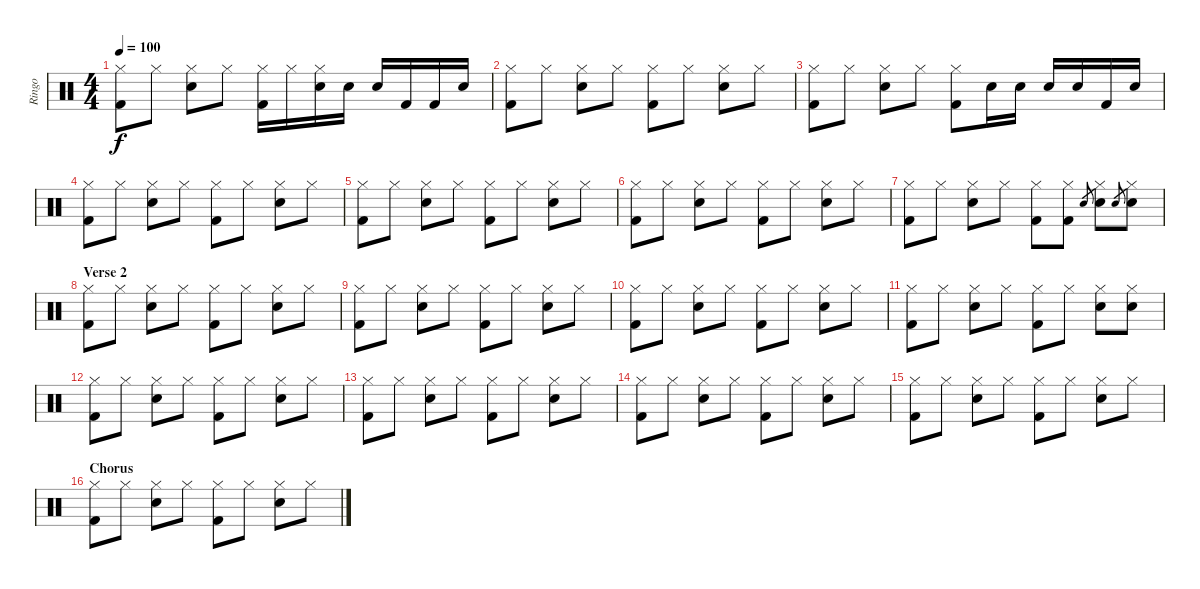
\track ("Ringo" "Ringo") {instrument percussion}
\staff {score}
\articulation defaults
\ts (4 4)
\tempo 100
\clef neutral
\ks c
("Hi-Hat (closed)" "Kick (hit) 2").8{dy f} "Hi-Hat (closed)".8 ("Hi-Hat (closed)" "Electric Snare (hit)").8 "Hi-Hat (closed)".8 ("Hi-Hat (closed)" "Kick (hit) 2").16 "Hi-Hat (closed)".16 ("Hi-Hat (closed)" "Electric Snare (hit)").16 "Electric Snare (hit)".16 "Electric Snare (hit)".16 "Kick (hit) 2".16 "Kick (hit) 2".16 "Electric Snare (hit)".16 |
("Hi-Hat (closed)" "Kick (hit) 2").8 "Hi-Hat (closed)".8 ("Hi-Hat (closed)" "Electric Snare (hit)").8 "Hi-Hat (closed)".8 ("Hi-Hat (closed)" "Kick (hit) 2").8 "Hi-Hat (closed)".8 ("Hi-Hat (closed)" "Electric Snare (hit)").8 "Hi-Hat (closed)".8 |
("Hi-Hat (closed)" "Kick (hit) 2").8 "Hi-Hat (closed)".8 ("Hi-Hat (closed)" "Electric Snare (hit)").8 "Hi-Hat (closed)".8 ("Hi-Hat (closed)" "Kick (hit) 2").8 "Electric Snare (hit)".16 "Electric Snare (hit)".16 "Electric Snare (hit)".16 "Electric Snare (hit)".16 "Kick (hit) 2".16 "Electric Snare (hit)".16 |
("Hi-Hat (closed)" "Kick (hit) 2").8 "Hi-Hat (closed)".8 ("Hi-Hat (closed)" "Electric Snare (hit)").8 "Hi-Hat (closed)".8 ("Hi-Hat (closed)" "Kick (hit) 2").8 "Hi-Hat (closed)".8 ("Hi-Hat (closed)" "Electric Snare (hit)").8 "Hi-Hat (closed)".8 |
("Hi-Hat (closed)" "Kick (hit) 2").8 "Hi-Hat (closed)".8 ("Hi-Hat (closed)" "Electric Snare (hit)").8 "Hi-Hat (closed)".8 ("Hi-Hat (closed)" "Kick (hit) 2").8 "Hi-Hat (closed)".8 ("Hi-Hat (closed)" "Electric Snare (hit)").8 "Hi-Hat (closed)".8 |
("Hi-Hat (closed)" "Kick (hit) 2").8 "Hi-Hat (closed)".8 ("Hi-Hat (closed)" "Electric Snare (hit)").8 "Hi-Hat (closed)".8 ("Hi-Hat (closed)" "Kick (hit) 2").8 "Hi-Hat (closed)".8 ("Hi-Hat (closed)" "Electric Snare (hit)").8 "Hi-Hat (closed)".8 |
("Hi-Hat (closed)" "Kick (hit) 2").8 "Hi-Hat (closed)".8 ("Hi-Hat (closed)" "Electric Snare (hit)").8 "Hi-Hat (closed)".8 ("Hi-Hat (closed)" "Kick (hit) 2").8 ("Hi-Hat (closed)" "Kick (hit) 2").8 "Electric Snare (hit)".8{gr} ("Hi-Hat (closed)" "Electric Snare (hit)").8 "Electric Snare (hit)".8{gr} ("Hi-Hat (closed)" "Electric Snare (hit)").8 |
\section ("" "Verse 2")
("Hi-Hat (closed)" "Kick (hit) 2").8 "Hi-Hat (closed)".8 ("Hi-Hat (closed)" "Electric Snare (hit)").8 "Hi-Hat (closed)".8 ("Hi-Hat (closed)" "Kick (hit) 2").8 "Hi-Hat (closed)".8 ("Hi-Hat (closed)" "Electric Snare (hit)").8 "Hi-Hat (closed)".8 |
("Hi-Hat (closed)" "Kick (hit) 2").8 "Hi-Hat (closed)".8 ("Hi-Hat (closed)" "Electric Snare (hit)").8 "Hi-Hat (closed)".8 ("Hi-Hat (closed)" "Kick (hit) 2").8 "Hi-Hat (closed)".8 ("Hi-Hat (closed)" "Electric Snare (hit)").8 "Hi-Hat (closed)".8 |
("Hi-Hat (closed)" "Kick (hit) 2").8 "Hi-Hat (closed)".8 ("Hi-Hat (closed)" "Electric Snare (hit)").8 "Hi-Hat (closed)".8 ("Hi-Hat (closed)" "Kick (hit) 2").8 "Hi-Hat (closed)".8 ("Hi-Hat (closed)" "Electric Snare (hit)").8 "Hi-Hat (closed)".8 |
("Hi-Hat (closed)" "Kick (hit) 2").8 "Hi-Hat (closed)".8 ("Hi-Hat (closed)" "Electric Snare (hit)").8 "Hi-Hat (closed)".8 ("Hi-Hat (closed)" "Kick (hit) 2").8 "Hi-Hat (closed)".8 ("Hi-Hat (closed)" "Electric Snare (hit)").8 ("Hi-Hat (closed)" "Electric Snare (hit)").8 |
("Hi-Hat (closed)" "Kick (hit) 2").8 "Hi-Hat (closed)".8 ("Hi-Hat (closed)" "Electric Snare (hit)").8 "Hi-Hat (closed)".8 ("Hi-Hat (closed)" "Kick (hit) 2").8 "Hi-Hat (closed)".8 ("Hi-Hat (closed)" "Electric Snare (hit)").8 "Hi-Hat (closed)".8 |
("Hi-Hat (closed)" "Kick (hit) 2").8 "Hi-Hat (closed)".8 ("Hi-Hat (closed)" "Electric Snare (hit)").8 "Hi-Hat (closed)".8 ("Hi-Hat (closed)" "Kick (hit) 2").8 "Hi-Hat (closed)".8 ("Hi-Hat (closed)" "Electric Snare (hit)").8 "Hi-Hat (closed)".8 |
("Hi-Hat (closed)" "Kick (hit) 2").8 "Hi-Hat (closed)".8 ("Hi-Hat (closed)" "Electric Snare (hit)").8 "Hi-Hat (closed)".8 ("Hi-Hat (closed)" "Kick (hit) 2").8 "Hi-Hat (closed)".8 ("Hi-Hat (closed)" "Electric Snare (hit)").8 "Hi-Hat (closed)".8 |
("Hi-Hat (closed)" "Kick (hit) 2").8 "Hi-Hat (closed)".8 ("Hi-Hat (closed)" "Electric Snare (hit)").8 "Hi-Hat (closed)".8 ("Hi-Hat (closed)" "Kick (hit) 2").8 "Hi-Hat (closed)".8 ("Hi-Hat (closed)" "Electric Snare (hit)").8 "Hi-Hat (closed)".8 |
\section ("" "Chorus")
("Hi-Hat (closed)" "Kick (hit) 2").8 "Hi-Hat (closed)".8 ("Hi-Hat (closed)" "Electric Snare (hit)").8 "Hi-Hat (closed)".8 ("Hi-Hat (closed)" "Kick (hit) 2").8 "Hi-Hat (closed)".8 ("Hi-Hat (closed)" "Electric Snare (hit)").8 "Hi-Hat (closed)".8
